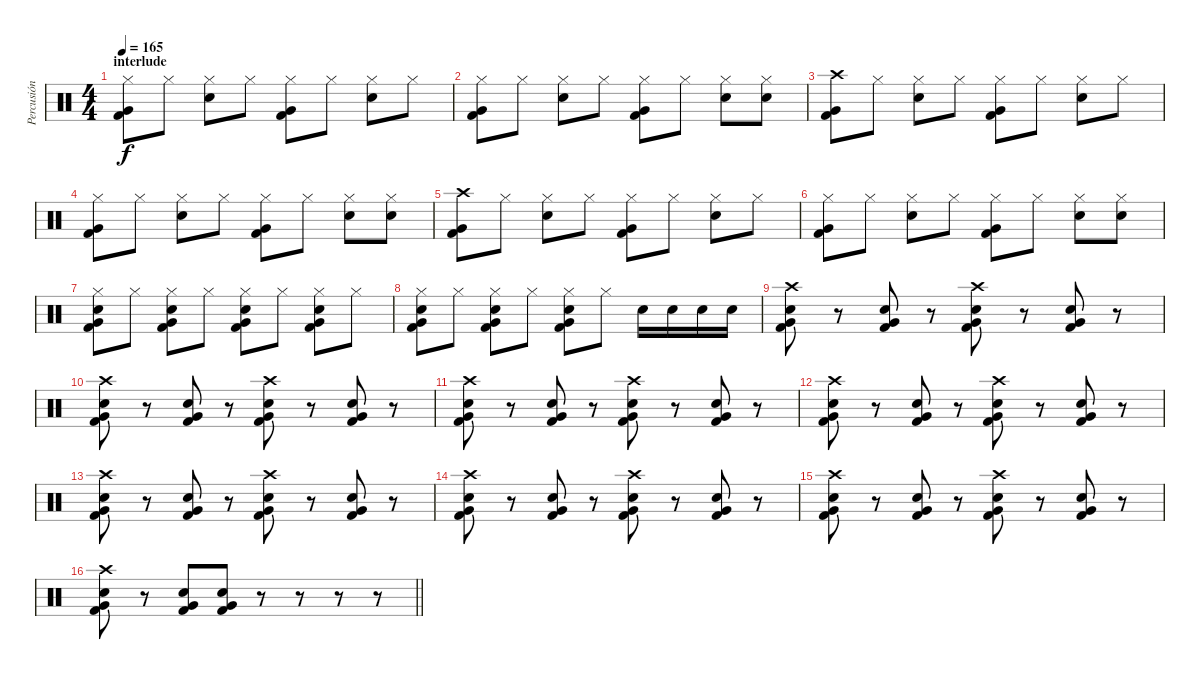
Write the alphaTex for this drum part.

\track ("Percusión" "Percusión") {instrument percussion}
\staff {score}
\articulation defaults
\ts (4 4)
\section ("" "interlude")
\tempo 165
\clef neutral
\ks c
("Hi-Hat (closed)" "Kick (hit) 2" "Very Low Tom (hit)").8{dy f} "Hi-Hat (closed)".8 ("Hi-Hat (closed)" "Electric Snare (hit)").8 "Hi-Hat (closed)".8 ("Hi-Hat (closed)" "Kick (hit) 2" "Very Low Tom (hit)").8 "Hi-Hat (closed)".8 ("Hi-Hat (closed)" "Electric Snare (hit)").8 "Hi-Hat (closed)".8 |
("Hi-Hat (closed)" "Kick (hit) 2" "Very Low Tom (hit)").8 "Hi-Hat (closed)".8 ("Hi-Hat (closed)" "Electric Snare (hit)").8 "Hi-Hat (closed)".8 ("Hi-Hat (closed)" "Kick (hit) 2" "Very Low Tom (hit)").8 "Hi-Hat (closed)".8 ("Hi-Hat (closed)" "Electric Snare (hit)").8 ("Hi-Hat (closed)" "Electric Snare (hit)").8 |
("Crash high (hit)" "Kick (hit) 2" "Very Low Tom (hit)").8 "Hi-Hat (closed)".8 ("Hi-Hat (closed)" "Electric Snare (hit)").8 "Hi-Hat (closed)".8 ("Hi-Hat (closed)" "Kick (hit) 2" "Very Low Tom (hit)").8 "Hi-Hat (closed)".8 ("Hi-Hat (closed)" "Electric Snare (hit)").8 "Hi-Hat (closed)".8 |
("Hi-Hat (closed)" "Kick (hit) 2" "Very Low Tom (hit)").8 "Hi-Hat (closed)".8 ("Hi-Hat (closed)" "Electric Snare (hit)").8 "Hi-Hat (closed)".8 ("Hi-Hat (closed)" "Kick (hit) 2" "Very Low Tom (hit)").8 "Hi-Hat (closed)".8 ("Hi-Hat (closed)" "Electric Snare (hit)").8 ("Hi-Hat (closed)" "Electric Snare (hit)").8 |
("Crash high (hit)" "Kick (hit) 2" "Very Low Tom (hit)").8 "Hi-Hat (closed)".8 ("Hi-Hat (closed)" "Electric Snare (hit)").8 "Hi-Hat (closed)".8 ("Hi-Hat (closed)" "Kick (hit) 2" "Very Low Tom (hit)").8 "Hi-Hat (closed)".8 ("Hi-Hat (closed)" "Electric Snare (hit)").8 "Hi-Hat (closed)".8 |
("Hi-Hat (closed)" "Kick (hit) 2" "Very Low Tom (hit)").8 "Hi-Hat (closed)".8 ("Hi-Hat (closed)" "Electric Snare (hit)").8 "Hi-Hat (closed)".8 ("Hi-Hat (closed)" "Kick (hit) 2" "Very Low Tom (hit)").8 "Hi-Hat (closed)".8 ("Hi-Hat (closed)" "Electric Snare (hit)").8 ("Hi-Hat (closed)" "Electric Snare (hit)").8 |
("Hi-Hat (closed)" "Electric Snare (hit)" "Kick (hit) 2" "Very Low Tom (hit)").8 "Hi-Hat (closed)".8 ("Hi-Hat (closed)" "Electric Snare (hit)" "Kick (hit) 2" "Very Low Tom (hit)").8 "Hi-Hat (closed)".8 ("Hi-Hat (closed)" "Electric Snare (hit)" "Kick (hit) 2" "Very Low Tom (hit)").8 "Hi-Hat (closed)".8 ("Hi-Hat (closed)" "Electric Snare (hit)" "Kick (hit) 2" "Very Low Tom (hit)").8 "Hi-Hat (closed)".8 |
("Hi-Hat (closed)" "Electric Snare (hit)" "Kick (hit) 2" "Very Low Tom (hit)").8 "Hi-Hat (closed)".8 ("Hi-Hat (closed)" "Electric Snare (hit)" "Kick (hit) 2" "Very Low Tom (hit)").8 "Hi-Hat (closed)".8 ("Hi-Hat (closed)" "Electric Snare (hit)" "Kick (hit) 2" "Very Low Tom (hit)").8 "Hi-Hat (closed)".8 "Electric Snare (hit)".16 "Electric Snare (hit)".16 "Electric Snare (hit)".16 "Electric Snare (hit)".16 |
("Crash high (hit)" "Electric Snare (hit)" "Kick (hit) 2" "Very Low Tom (hit)").8 r.8 ("Electric Snare (hit)" "Kick (hit) 2" "Very Low Tom (hit)").8 r.8 ("Crash high (hit)" "Electric Snare (hit)" "Kick (hit) 2" "Very Low Tom (hit)").8 r.8 ("Electric Snare (hit)" "Kick (hit) 2" "Very Low Tom (hit)").8 r.8 |
("Crash high (hit)" "Electric Snare (hit)" "Kick (hit) 2" "Very Low Tom (hit)").8 r.8 ("Electric Snare (hit)" "Kick (hit) 2" "Very Low Tom (hit)").8 r.8 ("Crash high (hit)" "Electric Snare (hit)" "Kick (hit) 2" "Very Low Tom (hit)").8 r.8 ("Electric Snare (hit)" "Kick (hit) 2" "Very Low Tom (hit)").8 r.8 |
("Crash high (hit)" "Electric Snare (hit)" "Kick (hit) 2" "Very Low Tom (hit)").8 r.8 ("Electric Snare (hit)" "Kick (hit) 2" "Very Low Tom (hit)").8 r.8 ("Crash high (hit)" "Electric Snare (hit)" "Kick (hit) 2" "Very Low Tom (hit)").8 r.8 ("Electric Snare (hit)" "Kick (hit) 2" "Very Low Tom (hit)").8 r.8 |
("Crash high (hit)" "Electric Snare (hit)" "Kick (hit) 2" "Very Low Tom (hit)").8 r.8 ("Electric Snare (hit)" "Kick (hit) 2" "Very Low Tom (hit)").8 r.8 ("Crash high (hit)" "Electric Snare (hit)" "Kick (hit) 2" "Very Low Tom (hit)").8 r.8 ("Electric Snare (hit)" "Kick (hit) 2" "Very Low Tom (hit)").8 r.8 |
("Crash high (hit)" "Electric Snare (hit)" "Kick (hit) 2" "Very Low Tom (hit)").8 r.8 ("Electric Snare (hit)" "Kick (hit) 2" "Very Low Tom (hit)").8 r.8 ("Crash high (hit)" "Electric Snare (hit)" "Kick (hit) 2" "Very Low Tom (hit)").8 r.8 ("Electric Snare (hit)" "Kick (hit) 2" "Very Low Tom (hit)").8 r.8 |
("Crash high (hit)" "Electric Snare (hit)" "Kick (hit) 2" "Very Low Tom (hit)").8 r.8 ("Electric Snare (hit)" "Kick (hit) 2" "Very Low Tom (hit)").8 r.8 ("Crash high (hit)" "Electric Snare (hit)" "Kick (hit) 2" "Very Low Tom (hit)").8 r.8 ("Electric Snare (hit)" "Kick (hit) 2" "Very Low Tom (hit)").8 r.8 |
("Crash high (hit)" "Electric Snare (hit)" "Kick (hit) 2" "Very Low Tom (hit)").8 r.8 ("Electric Snare (hit)" "Kick (hit) 2" "Very Low Tom (hit)").8 r.8 ("Crash high (hit)" "Electric Snare (hit)" "Kick (hit) 2" "Very Low Tom (hit)").8 r.8 ("Electric Snare (hit)" "Kick (hit) 2" "Very Low Tom (hit)").8 r.8 |
\barLineRight lightlight
("Crash high (hit)" "Electric Snare (hit)" "Kick (hit) 2" "Very Low Tom (hit)").8 r.8 ("Electric Snare (hit)" "Kick (hit) 2" "Very Low Tom (hit)").8 ("Electric Snare (hit)" "Kick (hit) 2" "Very Low Tom (hit)").8 r.8 r.8 r.8 r.8
